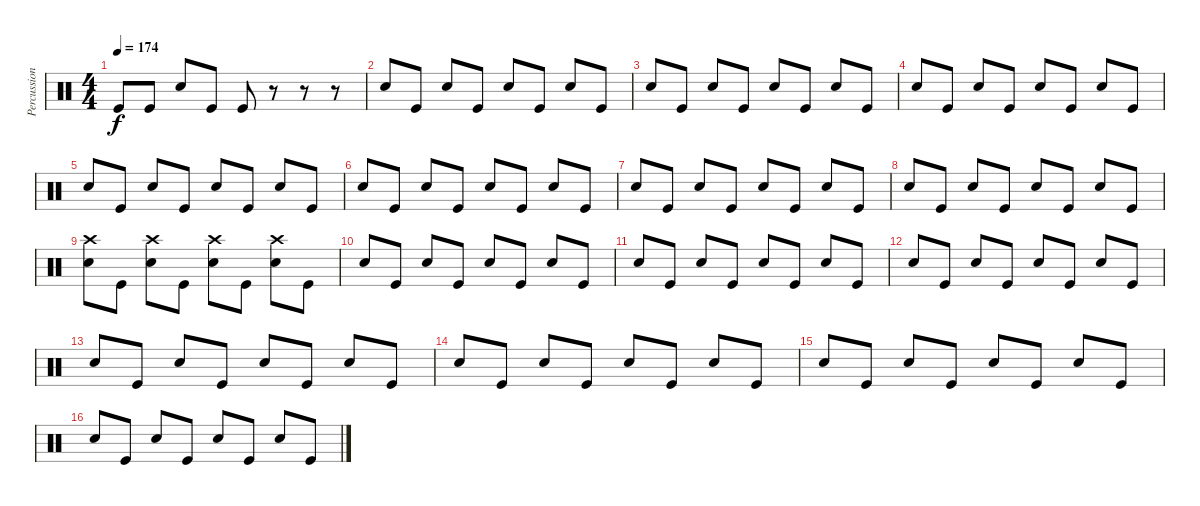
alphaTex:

\track ("Percussion" "Percussion") {instrument percussion}
\staff {score}
\articulation defaults
\ts (4 4)
\tempo 174
\clef neutral
\ks c "Kick (hit)".8{dy f} "Kick (hit)".8 "Electric Snare (hit)".8 "Kick (hit)".8 "Kick (hit)".8
r.8 r.8 r.8 |
"Electric Snare (hit)".8 "Kick (hit)".8 "Electric Snare (hit)".8 "Kick (hit)".8 "Electric Snare (hit)".8 "Kick (hit)".8 "Electric Snare (hit)".8 "Kick (hit)".8 |
"Electric Snare (hit)".8 "Kick (hit)".8 "Electric Snare (hit)".8 "Kick (hit)".8 "Electric Snare (hit)".8 "Kick (hit)".8 "Electric Snare (hit)".8 "Kick (hit)".8 |
"Electric Snare (hit)".8 "Kick (hit)".8 "Electric Snare (hit)".8 "Kick (hit)".8 "Electric Snare (hit)".8 "Kick (hit)".8 "Electric Snare (hit)".8 "Kick (hit)".8 |
"Electric Snare (hit)".8 "Kick (hit)".8 "Electric Snare (hit)".8 "Kick (hit)".8 "Electric Snare (hit)".8 "Kick (hit)".8 "Electric Snare (hit)".8 "Kick (hit)".8 |
"Electric Snare (hit)".8 "Kick (hit)".8 "Electric Snare (hit)".8 "Kick (hit)".8 "Electric Snare (hit)".8 "Kick (hit)".8 "Electric Snare (hit)".8 "Kick (hit)".8 |
"Electric Snare (hit)".8 "Kick (hit)".8 "Electric Snare (hit)".8 "Kick (hit)".8 "Electric Snare (hit)".8 "Kick (hit)".8 "Electric Snare (hit)".8 "Kick (hit)".8 |
"Electric Snare (hit)".8 "Kick (hit)".8 "Electric Snare (hit)".8 "Kick (hit)".8 "Electric Snare (hit)".8 "Kick (hit)".8 "Electric Snare (hit)".8 "Kick (hit)".8 |
("Crash high (hit)" "Electric Snare (hit)").8 "Kick (hit)".8 ("Crash high (hit)" "Electric Snare (hit)").8 "Kick (hit)".8 ("Crash high (hit)" "Electric Snare (hit)").8 "Kick (hit)".8 ("Crash high (hit)" "Electric Snare (hit)").8 "Kick (hit)".8 |
"Electric Snare (hit)".8 "Kick (hit)".8 "Electric Snare (hit)".8 "Kick (hit)".8 "Electric Snare (hit)".8 "Kick (hit)".8 "Electric Snare (hit)".8 "Kick (hit)".8 |
"Electric Snare (hit)".8 "Kick (hit)".8 "Electric Snare (hit)".8 "Kick (hit)".8 "Electric Snare (hit)".8 "Kick (hit)".8 "Electric Snare (hit)".8 "Kick (hit)".8 |
"Electric Snare (hit)".8 "Kick (hit)".8 "Electric Snare (hit)".8 "Kick (hit)".8 "Electric Snare (hit)".8 "Kick (hit)".8 "Electric Snare (hit)".8 "Kick (hit)".8 |
"Electric Snare (hit)".8 "Kick (hit)".8 "Electric Snare (hit)".8 "Kick (hit)".8 "Electric Snare (hit)".8 "Kick (hit)".8 "Electric Snare (hit)".8 "Kick (hit)".8 |
"Electric Snare (hit)".8 "Kick (hit)".8 "Electric Snare (hit)".8 "Kick (hit)".8 "Electric Snare (hit)".8 "Kick (hit)".8 "Electric Snare (hit)".8 "Kick (hit)".8 |
"Electric Snare (hit)".8 "Kick (hit)".8 "Electric Snare (hit)".8 "Kick (hit)".8 "Electric Snare (hit)".8 "Kick (hit)".8 "Electric Snare (hit)".8 "Kick (hit)".8 |
"Electric Snare (hit)".8 "Kick (hit)".8 "Electric Snare (hit)".8 "Kick (hit)".8 "Electric Snare (hit)".8 "Kick (hit)".8 "Electric Snare (hit)".8 "Kick (hit)".8
